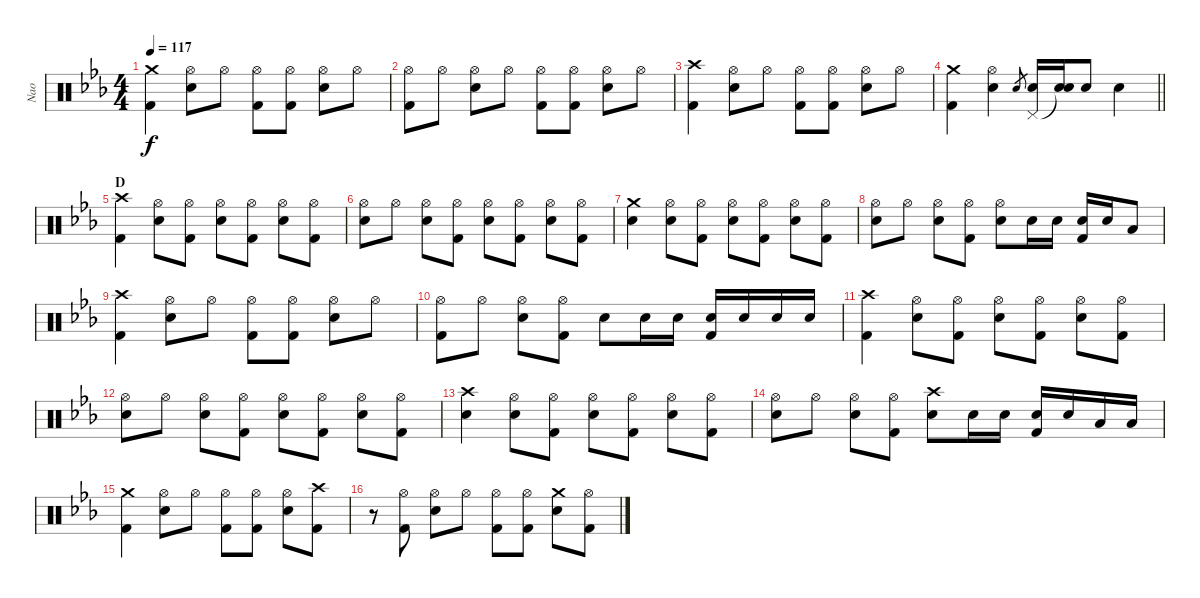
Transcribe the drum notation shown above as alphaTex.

\track ("Nao" "Nao") {instrument percussion}
\staff {score}
\articulation defaults
\ts (4 4)
\tempo 117
\clef neutral
\ks eb
("Crash medium (hit)" "Kick (hit) 2").4{dy f} ("Hi-Hat (open)" "Snare (hit) 2").8 "Hi-Hat (open)".8 ("Hi-Hat (open)" "Kick (hit) 2").8 ("Hi-Hat (open)" "Kick (hit) 2").8 ("Hi-Hat (open)" "Snare (hit) 2").8 "Hi-Hat (open)".8 |
("Hi-Hat (open)" "Kick (hit) 2").8 "Hi-Hat (open)".8 ("Hi-Hat (open)" "Snare (hit) 2").8 "Hi-Hat (open)".8 ("Hi-Hat (open)" "Kick (hit) 2").8 ("Hi-Hat (open)" "Kick (hit) 2").8 ("Hi-Hat (open)" "Snare (hit) 2").8 "Hi-Hat (open)".8 |
("Crash high (hit)" "Kick (hit) 2").4 ("Hi-Hat (open)" "Snare (hit) 2").8 "Hi-Hat (open)".8 ("Hi-Hat (open)" "Kick (hit) 2").8 ("Hi-Hat (open)" "Kick (hit) 2").8 ("Hi-Hat (open)" "Snare (hit) 2").8 "Hi-Hat (open)".8 |
\barLineRight lightlight
("Crash medium (hit)" "Kick (hit) 2").4 ("Hi-Hat (open)" "Snare (hit) 2").4 "Snare (hit) 2".8{gr} ("Pedal Hi-Hat (hit)" "Snare (hit) 2").16 ("Snare (hit)"{t} "Snare (hit) 2").16 "Snare (hit) 2".8 "Snare (hit) 2".4 |
\section ("" "D")
("Crash high (hit)" "Kick (hit) 2").4 ("Hi-Hat (open)" "Snare (hit) 2").8 ("Hi-Hat (open)" "Kick (hit) 2").8 ("Hi-Hat (open)" "Snare (hit) 2").8 ("Hi-Hat (open)" "Kick (hit) 2").8 ("Hi-Hat (open)" "Snare (hit) 2").8 ("Hi-Hat (open)" "Kick (hit) 2").8 |
("Hi-Hat (open)" "Snare (hit) 2").8 "Hi-Hat (open)".8 ("Hi-Hat (open)" "Snare (hit) 2").8 ("Hi-Hat (open)" "Kick (hit) 2").8 ("Hi-Hat (open)" "Snare (hit) 2").8 ("Hi-Hat (open)" "Kick (hit) 2").8 ("Hi-Hat (open)" "Snare (hit) 2").8 ("Hi-Hat (open)" "Kick (hit) 2").8 |
("Crash medium (hit)" "Snare (hit) 2").4 ("Hi-Hat (open)" "Snare (hit) 2").8 ("Hi-Hat (open)" "Kick (hit) 2").8 ("Hi-Hat (open)" "Snare (hit) 2").8 ("Hi-Hat (open)" "Kick (hit) 2").8 ("Hi-Hat (open)" "Snare (hit) 2").8 ("Hi-Hat (open)" "Kick (hit) 2").8 |
("Hi-Hat (open)" "Snare (hit) 2").8 "Hi-Hat (open)".8 ("Hi-Hat (open)" "Snare (hit) 2").8 ("Hi-Hat (open)" "Kick (hit) 2").8 ("Hi-Hat (open)" "Snare (hit) 2").8 "Snare (hit) 2".16 "Snare (hit) 2".16 ("Snare (hit) 2" "Kick (hit) 2").16 "Snare (hit) 2".16 "Low Tom (hit)".8 |
("Crash high (hit)" "Kick (hit) 2").4 ("Hi-Hat (open)" "Snare (hit) 2").8 "Hi-Hat (open)".8 ("Hi-Hat (open)" "Kick (hit) 2").8 ("Hi-Hat (open)" "Kick (hit) 2").8 ("Hi-Hat (open)" "Snare (hit) 2").8 "Hi-Hat (open)".8 |
("Hi-Hat (open)" "Kick (hit) 2").8 "Hi-Hat (open)".8 ("Hi-Hat (open)" "Snare (hit) 2").8 ("Hi-Hat (open)" "Kick (hit) 2").8 "Snare (hit) 2".8 "Snare (hit) 2".16 "Snare (hit) 2".16 ("Snare (hit) 2" "Kick (hit) 2").16 "Snare (hit) 2".16 "Snare (hit) 2".16 "Snare (hit) 2".16 |
("Crash high (hit)" "Kick (hit) 2").4 ("Hi-Hat (open)" "Snare (hit) 2").8 ("Hi-Hat (open)" "Kick (hit) 2").8 ("Hi-Hat (open)" "Snare (hit) 2").8 ("Hi-Hat (open)" "Kick (hit) 2").8 ("Hi-Hat (open)" "Snare (hit) 2").8 ("Hi-Hat (open)" "Kick (hit) 2").8 |
("Hi-Hat (open)" "Snare (hit) 2").8 "Hi-Hat (open)".8 ("Hi-Hat (open)" "Snare (hit) 2").8 ("Hi-Hat (open)" "Kick (hit) 2").8 ("Hi-Hat (open)" "Snare (hit) 2").8 ("Hi-Hat (open)" "Kick (hit) 2").8 ("Hi-Hat (open)" "Snare (hit) 2").8 ("Hi-Hat (open)" "Kick (hit) 2").8 |
("Crash high (hit)" "Snare (hit) 2").4 ("Hi-Hat (open)" "Snare (hit) 2").8 ("Hi-Hat (open)" "Kick (hit) 2").8 ("Hi-Hat (open)" "Snare (hit) 2").8 ("Hi-Hat (open)" "Kick (hit) 2").8 ("Hi-Hat (open)" "Snare (hit) 2").8 ("Hi-Hat (open)" "Kick (hit) 2").8 |
("Hi-Hat (open)" "Snare (hit) 2").8 "Hi-Hat (open)".8 ("Hi-Hat (open)" "Snare (hit) 2").8 ("Hi-Hat (open)" "Kick (hit) 2").8 ("Crash high (hit)" "Snare (hit) 2").8 "Snare (hit) 2".16 "Snare (hit) 2".16 ("Snare (hit) 2" "Kick (hit) 2").16 "Snare (hit) 2".16 "Low Tom (hit)".16 "Low Tom (hit)".16 |
("Crash medium (hit)" "Kick (hit) 2").4 ("Hi-Hat (open)" "Snare (hit) 2").8 "Hi-Hat (open)".8 ("Hi-Hat (open)" "Kick (hit) 2").8 ("Hi-Hat (open)" "Kick (hit) 2").8 ("Hi-Hat (open)" "Snare (hit) 2").8 ("Crash high (hit)" "Kick (hit) 2").8 |
r.8 ("Hi-Hat (open)" "Kick (hit) 2").8 ("Hi-Hat (open)" "Snare (hit) 2").8 "Hi-Hat (open)".8 ("Hi-Hat (open)" "Kick (hit) 2").8 ("Hi-Hat (open)" "Kick (hit) 2").8 ("Crash medium (hit)" "Snare (hit) 2").8 ("Hi-Hat (open)" "Kick (hit) 2").8
